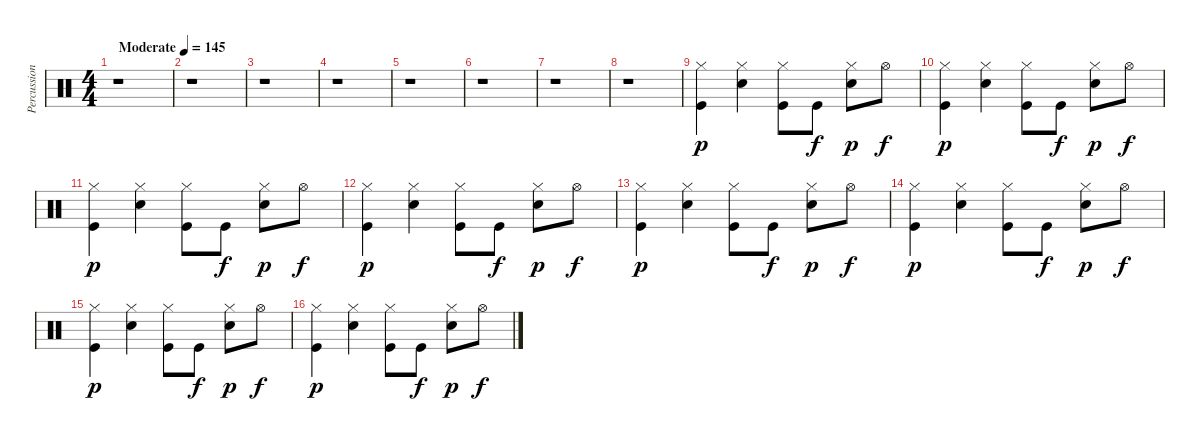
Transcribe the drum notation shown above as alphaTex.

\track ("Percussion" "Percussion") {instrument percussion}
\staff {score}
\articulation defaults
\ts (4 4)
\tempo (145 "Moderate")
\clef neutral
\ks c
r.1{dy p} |
r.1 |
r.1 |
r.1 |
r.1 |
r.1 |
r.1 |
r.1 |
("Hi-Hat (closed)" "Kick (hit)").4 ("Hi-Hat (closed)" "Snare (hit) 2").4 ("Hi-Hat (closed)" "Kick (hit)").8 "Kick (hit)".8{dy f} ("Hi-Hat (closed)" "Snare (hit) 2").8{dy p} "Hi-Hat (open)".8{dy f} |
("Hi-Hat (closed)" "Kick (hit)").4{dy p} ("Hi-Hat (closed)" "Snare (hit) 2").4 ("Hi-Hat (closed)" "Kick (hit)").8 "Kick (hit)".8{dy f} ("Hi-Hat (closed)" "Snare (hit) 2").8{dy p} "Hi-Hat (open)".8{dy f} |
("Hi-Hat (closed)" "Kick (hit)").4{dy p} ("Hi-Hat (closed)" "Snare (hit) 2").4 ("Hi-Hat (closed)" "Kick (hit)").8 "Kick (hit)".8{dy f} ("Hi-Hat (closed)" "Snare (hit) 2").8{dy p} "Hi-Hat (open)".8{dy f} |
("Hi-Hat (closed)" "Kick (hit)").4{dy p} ("Hi-Hat (closed)" "Snare (hit) 2").4 ("Hi-Hat (closed)" "Kick (hit)").8 "Kick (hit)".8{dy f} ("Hi-Hat (closed)" "Snare (hit) 2").8{dy p} "Hi-Hat (open)".8{dy f} |
("Hi-Hat (closed)" "Kick (hit)").4{dy p} ("Hi-Hat (closed)" "Snare (hit) 2").4 ("Hi-Hat (closed)" "Kick (hit)").8 "Kick (hit)".8{dy f} ("Hi-Hat (closed)" "Snare (hit) 2").8{dy p} "Hi-Hat (open)".8{dy f} |
("Hi-Hat (closed)" "Kick (hit)").4{dy p} ("Hi-Hat (closed)" "Snare (hit) 2").4 ("Hi-Hat (closed)" "Kick (hit)").8 "Kick (hit)".8{dy f} ("Hi-Hat (closed)" "Snare (hit) 2").8{dy p} "Hi-Hat (open)".8{dy f} |
("Hi-Hat (closed)" "Kick (hit)").4{dy p} ("Hi-Hat (closed)" "Snare (hit) 2").4 ("Hi-Hat (closed)" "Kick (hit)").8 "Kick (hit)".8{dy f} ("Hi-Hat (closed)" "Snare (hit) 2").8{dy p} "Hi-Hat (open)".8{dy f} |
("Hi-Hat (closed)" "Kick (hit)").4{dy p} ("Hi-Hat (closed)" "Snare (hit) 2").4 ("Hi-Hat (closed)" "Kick (hit)").8 "Kick (hit)".8{dy f} ("Hi-Hat (closed)" "Snare (hit) 2").8{dy p} "Hi-Hat (open)".8{dy f}
